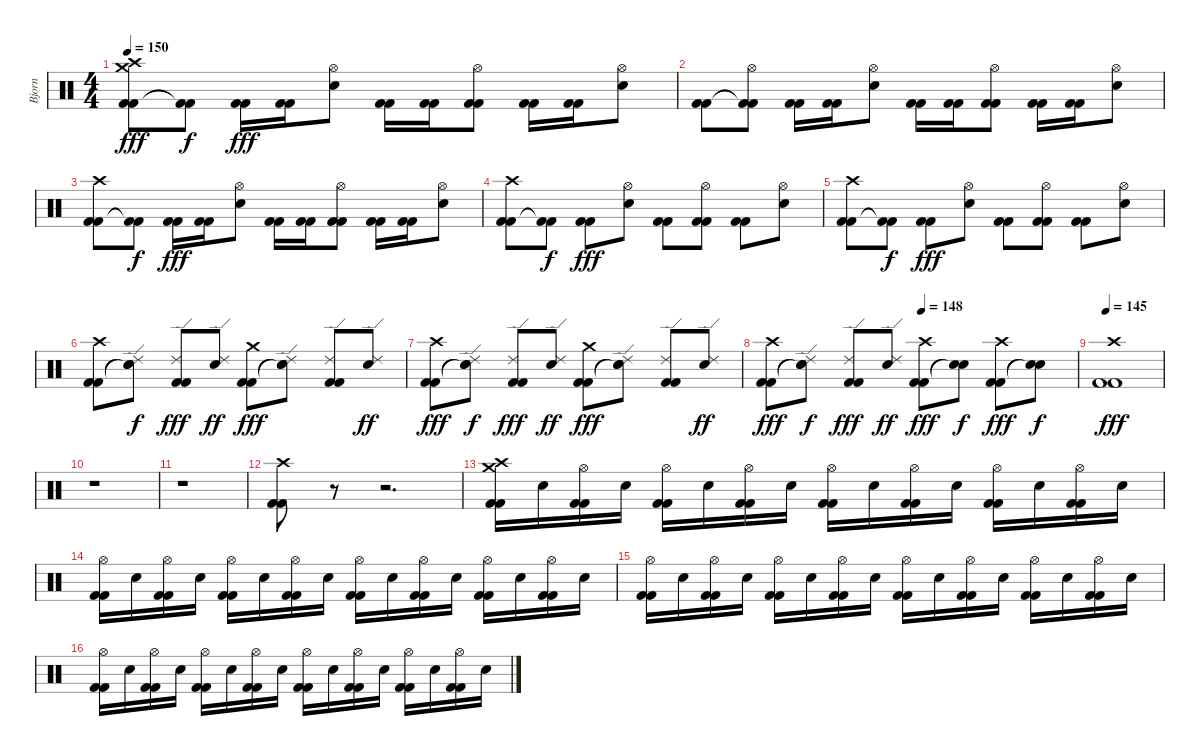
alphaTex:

\track ("Bjorn" "Bjorn") {instrument percussion}
\staff {score}
\articulation defaults
\ts (4 4)
\tempo 150
\clef neutral
\ks c
("Kick (hit) 2" "Kick (hit) 2" "Crash high (hit)" "Crash medium (hit)").8{dy fff} ("Kick (hit) 2"{t} "Kick (hit) 2"{t}).8{dy f} ("Kick (hit) 2" "Kick (hit) 2").16{dy fff} ("Kick (hit) 2" "Kick (hit) 2").16 ("Snare (hit) 2" "Hi-Hat (open)").8 ("Kick (hit) 2" "Kick (hit) 2").16 ("Kick (hit) 2" "Kick (hit) 2").16 ("Kick (hit) 2" "Kick (hit) 2" "Hi-Hat (open)").8 ("Kick (hit) 2" "Kick (hit) 2").16 ("Kick (hit) 2" "Kick (hit) 2").16 ("Snare (hit) 2" "Hi-Hat (open)").8 |
("Kick (hit) 2" "Kick (hit) 2").8 ("Kick (hit) 2"{t} "Kick (hit) 2"{t} "Hi-Hat (open)").8 ("Kick (hit) 2" "Kick (hit) 2").16 ("Kick (hit) 2" "Kick (hit) 2").16 ("Snare (hit) 2" "Hi-Hat (open)").8 ("Kick (hit) 2" "Kick (hit) 2").16 ("Kick (hit) 2" "Kick (hit) 2").16 ("Kick (hit) 2" "Kick (hit) 2" "Hi-Hat (open)").8 ("Kick (hit) 2" "Kick (hit) 2").16 ("Kick (hit) 2" "Kick (hit) 2").16 ("Snare (hit) 2" "Hi-Hat (open)").8 |
("Kick (hit) 2" "Kick (hit) 2" "Crash high (hit)").8 ("Kick (hit) 2"{t} "Kick (hit) 2"{t}).8{dy f} ("Kick (hit) 2" "Kick (hit) 2").16{dy fff} ("Kick (hit) 2" "Kick (hit) 2").16 ("Snare (hit) 2" "Hi-Hat (open)").8 ("Kick (hit) 2" "Kick (hit) 2").16 ("Kick (hit) 2" "Kick (hit) 2").16 ("Kick (hit) 2" "Kick (hit) 2" "Hi-Hat (open)").8 ("Kick (hit) 2" "Kick (hit) 2").16 ("Kick (hit) 2" "Kick (hit) 2").16 ("Snare (hit) 2" "Hi-Hat (open)").8 |
("Kick (hit) 2" "Kick (hit) 2" "Crash high (hit)").8 ("Kick (hit) 2"{t} "Kick (hit) 2"{t}).8{dy f} ("Kick (hit) 2" "Kick (hit) 2").8{dy fff} ("Snare (hit) 2" "Hi-Hat (open)").8 ("Kick (hit) 2" "Kick (hit) 2").8 ("Kick (hit) 2" "Kick (hit) 2" "Hi-Hat (open)").8 ("Kick (hit) 2" "Kick (hit) 2").8 ("Snare (hit) 2" "Hi-Hat (open)").8 |
("Kick (hit) 2" "Kick (hit) 2" "Crash high (hit)").8 ("Kick (hit) 2"{t} "Kick (hit) 2"{t}).8{dy f} ("Kick (hit) 2" "Kick (hit) 2").8{dy fff} ("Snare (hit) 2" "Hi-Hat (open)").8 ("Kick (hit) 2" "Kick (hit) 2").8 ("Kick (hit) 2" "Kick (hit) 2" "Hi-Hat (open)").8 ("Kick (hit) 2" "Kick (hit) 2").8 ("Snare (hit) 2" "Hi-Hat (open)").8 |
("Kick (hit) 2" "Kick (hit) 2" "Crash high (hit)").8 ("Snare (hit)"{t} "Snare (hit)"{t} "Ride (edge) 2").8{dy f} ("Kick (hit) 2" "Kick (hit) 2" "Ride (edge) 2").8{dy fff} ("Snare (hit) 2" "Ride (edge) 2").8{dy ff} ("Kick (hit) 2" "Kick (hit) 2" "Crash medium (hit)").8{dy fff} ("Snare (hit)"{t} "Snare (hit)"{t} "Ride (edge) 2").8 ("Kick (hit) 2" "Kick (hit) 2" "Ride (edge) 2").8 ("Snare (hit) 2" "Ride (edge) 2").8{dy ff} |
("Kick (hit) 2" "Kick (hit) 2" "Crash high (hit)").8{dy fff} ("Snare (hit)"{t} "Snare (hit)"{t} "Ride (edge) 2").8{dy f} ("Kick (hit) 2" "Kick (hit) 2" "Ride (edge) 2").8{dy fff} ("Snare (hit) 2" "Ride (edge) 2").8{dy ff} ("Kick (hit) 2" "Kick (hit) 2" "Crash medium (hit)").8{dy fff} ("Snare (hit)"{t} "Snare (hit)"{t} "Ride (edge) 2").8 ("Kick (hit) 2" "Kick (hit) 2" "Ride (edge) 2").8 ("Snare (hit) 2" "Ride (edge) 2").8{dy ff} |
\tempo (148 0.5)
("Kick (hit) 2" "Kick (hit) 2" "Crash high (hit)").8{dy fff} ("Snare (hit)"{t} "Snare (hit)"{t} "Ride (edge) 2").8{dy f} ("Kick (hit) 2" "Kick (hit) 2" "Ride (edge) 2").8{dy fff} ("Snare (hit) 2" "Ride (edge) 2").8{dy ff} ("Kick (hit) 2" "Kick (hit) 2" "Crash high (hit)").8{dy fff} ("Snare (hit)"{t} "Snare (hit)"{t}).8{dy f} ("Kick (hit) 2" "Kick (hit) 2" "Crash high (hit)").8{dy fff} ("Snare (hit)"{t} "Snare (hit)"{t}).8{dy f} |
\tempo 145
("Kick (hit) 2" "Kick (hit) 2" "Crash high (hit)").1{dy fff} |
r.1 |
r.1 |
("Kick (hit) 2" "Kick (hit) 2" "Crash high (hit)").8 r.8 r.2{d} |
("Kick (hit) 2" "Kick (hit) 2" "Crash high (hit)" "Crash medium (hit)").16 "Snare (hit) 2".16 ("Kick (hit) 2" "Kick (hit) 2" "Hi-Hat (open)").16 "Snare (hit) 2".16 ("Kick (hit) 2" "Kick (hit) 2" "Hi-Hat (open)").16 "Snare (hit) 2".16 ("Kick (hit) 2" "Kick (hit) 2" "Hi-Hat (open)").16 "Snare (hit) 2".16 ("Kick (hit) 2" "Kick (hit) 2" "Hi-Hat (open)").16 "Snare (hit) 2".16 ("Kick (hit) 2" "Kick (hit) 2" "Hi-Hat (open)").16 "Snare (hit) 2".16 ("Kick (hit) 2" "Kick (hit) 2" "Hi-Hat (open)").16 "Snare (hit) 2".16 ("Kick (hit) 2" "Kick (hit) 2" "Hi-Hat (open)").16 "Snare (hit) 2".16 |
("Kick (hit) 2" "Kick (hit) 2" "Hi-Hat (open)").16 "Snare (hit) 2".16 ("Kick (hit) 2" "Kick (hit) 2" "Hi-Hat (open)").16 "Snare (hit) 2".16 ("Kick (hit) 2" "Kick (hit) 2" "Hi-Hat (open)").16 "Snare (hit) 2".16 ("Kick (hit) 2" "Kick (hit) 2" "Hi-Hat (open)").16 "Snare (hit) 2".16 ("Kick (hit) 2" "Kick (hit) 2" "Hi-Hat (open)").16 "Snare (hit) 2".16 ("Kick (hit) 2" "Kick (hit) 2" "Hi-Hat (open)").16 "Snare (hit) 2".16 ("Kick (hit) 2" "Kick (hit) 2" "Hi-Hat (open)").16 "Snare (hit) 2".16 ("Kick (hit) 2" "Kick (hit) 2" "Hi-Hat (open)").16 "Snare (hit) 2".16 |
("Kick (hit) 2" "Kick (hit) 2" "Hi-Hat (open)").16 "Snare (hit) 2".16 ("Kick (hit) 2" "Kick (hit) 2" "Hi-Hat (open)").16 "Snare (hit) 2".16 ("Kick (hit) 2" "Kick (hit) 2" "Hi-Hat (open)").16 "Snare (hit) 2".16 ("Kick (hit) 2" "Kick (hit) 2" "Hi-Hat (open)").16 "Snare (hit) 2".16 ("Kick (hit) 2" "Kick (hit) 2" "Hi-Hat (open)").16 "Snare (hit) 2".16 ("Kick (hit) 2" "Kick (hit) 2" "Hi-Hat (open)").16 "Snare (hit) 2".16 ("Kick (hit) 2" "Kick (hit) 2" "Hi-Hat (open)").16 "Snare (hit) 2".16 ("Kick (hit) 2" "Kick (hit) 2" "Hi-Hat (open)").16 "Snare (hit) 2".16 |
("Kick (hit) 2" "Kick (hit) 2" "Hi-Hat (open)").16 "Snare (hit) 2".16 ("Kick (hit) 2" "Kick (hit) 2" "Hi-Hat (open)").16 "Snare (hit) 2".16 ("Kick (hit) 2" "Kick (hit) 2" "Hi-Hat (open)").16 "Snare (hit) 2".16 ("Kick (hit) 2" "Kick (hit) 2" "Hi-Hat (open)").16 "Snare (hit) 2".16 ("Kick (hit) 2" "Kick (hit) 2" "Hi-Hat (open)").16 "Snare (hit) 2".16 ("Kick (hit) 2" "Kick (hit) 2" "Hi-Hat (open)").16 "Snare (hit) 2".16 ("Kick (hit) 2" "Kick (hit) 2" "Hi-Hat (open)").16 "Snare (hit) 2".16 ("Kick (hit) 2" "Kick (hit) 2" "Hi-Hat (open)").16 "Snare (hit) 2".16
